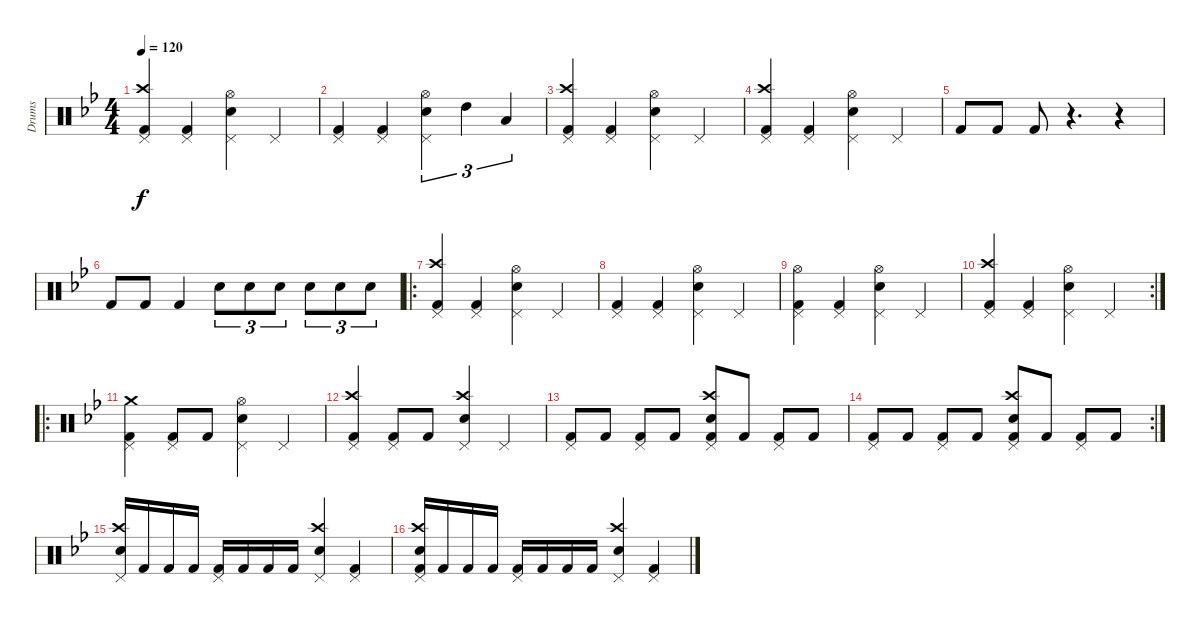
\track ("Drums" "Drums") {instrument percussion}
\staff {score}
\articulation defaults
\ts (4 4)
\tempo 120
\clef neutral
\ks bb
("Pedal Hi-Hat (hit)" "Crash high (hit)" "Kick (hit) 2").4{dy f} ("Pedal Hi-Hat (hit)" "Kick (hit) 2").4 ("Pedal Hi-Hat (hit)" "Snare (hit) 2" "Hi-Hat (open)").4 "Pedal Hi-Hat (hit)".4 |
("Pedal Hi-Hat (hit)" "Kick (hit) 2").4 ("Pedal Hi-Hat (hit)" "Kick (hit) 2").4 ("Pedal Hi-Hat (hit)" "Snare (hit) 2" "Hi-Hat (open)").4{tu (3 2)} "High Tom (hit)".4{tu (3 2)} "Low Tom (hit)".4{tu (3 2)} |
("Pedal Hi-Hat (hit)" "Crash high (hit)" "Kick (hit) 2").4 ("Pedal Hi-Hat (hit)" "Kick (hit) 2").4 ("Pedal Hi-Hat (hit)" "Snare (hit) 2" "Hi-Hat (open)").4 "Pedal Hi-Hat (hit)".4 |
("Pedal Hi-Hat (hit)" "Crash high (hit)" "Kick (hit) 2").4 ("Pedal Hi-Hat (hit)" "Kick (hit) 2").4 ("Pedal Hi-Hat (hit)" "Snare (hit) 2" "Hi-Hat (open)").4 "Pedal Hi-Hat (hit)".4 |
"Kick (hit) 2".8 "Kick (hit) 2".8 "Kick (hit) 2".8 r.4{d} r.4 |
"Kick (hit) 2".8 "Kick (hit) 2".8 "Kick (hit) 2".4 "Snare (hit) 2".8{tu (3 2)} "Snare (hit) 2".8{tu (3 2)} "Snare (hit) 2".8{tu (3 2)} "Snare (hit) 2".8{tu (3 2)} "Snare (hit) 2".8{tu (3 2)} "Snare (hit) 2".8{tu (3 2)} |
\ro
("Pedal Hi-Hat (hit)" "Crash high (hit)" "Kick (hit) 2").4 ("Pedal Hi-Hat (hit)" "Kick (hit) 2").4 ("Pedal Hi-Hat (hit)" "Snare (hit) 2" "Hi-Hat (open)").4 "Pedal Hi-Hat (hit)".4 |
("Pedal Hi-Hat (hit)" "Kick (hit) 2").4 ("Pedal Hi-Hat (hit)" "Kick (hit) 2").4 ("Pedal Hi-Hat (hit)" "Snare (hit) 2" "Hi-Hat (open)").4 "Pedal Hi-Hat (hit)".4 |
("Pedal Hi-Hat (hit)" "Hi-Hat (open)" "Kick (hit) 2").4 ("Pedal Hi-Hat (hit)" "Kick (hit) 2").4 ("Pedal Hi-Hat (hit)" "Snare (hit) 2" "Hi-Hat (open)").4 "Pedal Hi-Hat (hit)".4 |
\rc 2
("Pedal Hi-Hat (hit)" "Crash high (hit)" "Kick (hit) 2").4 ("Pedal Hi-Hat (hit)" "Kick (hit) 2").4 ("Pedal Hi-Hat (hit)" "Snare (hit) 2" "Hi-Hat (open)").4 "Pedal Hi-Hat (hit)".4 |
\ro
("Pedal Hi-Hat (hit)" "Crash medium (hit)" "Kick (hit) 2").4 ("Pedal Hi-Hat (hit)" "Kick (hit) 2").8 "Kick (hit) 2".8 ("Pedal Hi-Hat (hit)" "Snare (hit) 2" "Hi-Hat (open)").4 "Pedal Hi-Hat (hit)".4 |
("Pedal Hi-Hat (hit)" "Crash high (hit)" "Kick (hit) 2").4 ("Pedal Hi-Hat (hit)" "Kick (hit) 2").8 "Kick (hit) 2".8 ("Pedal Hi-Hat (hit)" "Snare (hit) 2" "Crash high (hit)").4 "Pedal Hi-Hat (hit)".4 |
("Pedal Hi-Hat (hit)" "Kick (hit) 2").8 "Kick (hit) 2".8 ("Pedal Hi-Hat (hit)" "Kick (hit) 2").8 "Kick (hit) 2".8 ("Pedal Hi-Hat (hit)" "Snare (hit) 2" "Crash high (hit)" "Kick (hit) 2").8 "Kick (hit) 2".8 ("Pedal Hi-Hat (hit)" "Kick (hit) 2").8 "Kick (hit) 2".8 |
\rc 2
("Pedal Hi-Hat (hit)" "Kick (hit) 2").8 "Kick (hit) 2".8 ("Pedal Hi-Hat (hit)" "Kick (hit) 2").8 "Kick (hit) 2".8 ("Pedal Hi-Hat (hit)" "Snare (hit) 2" "Crash high (hit)" "Kick (hit) 2").8 "Kick (hit) 2".8 ("Pedal Hi-Hat (hit)" "Kick (hit) 2").8 "Kick (hit) 2".8 |
("Pedal Hi-Hat (hit)" "Snare (hit) 2" "Crash high (hit)").16 "Kick (hit) 2".16 "Kick (hit) 2".16 "Kick (hit) 2".16 ("Pedal Hi-Hat (hit)" "Kick (hit) 2").16 "Kick (hit) 2".16 "Kick (hit) 2".16 "Kick (hit) 2".16 ("Pedal Hi-Hat (hit)" "Snare (hit) 2" "Crash high (hit)").4 ("Pedal Hi-Hat (hit)" "Kick (hit) 2").4 |
("Pedal Hi-Hat (hit)" "Snare (hit) 2" "Crash high (hit)" "Kick (hit) 2").16 "Kick (hit) 2".16 "Kick (hit) 2".16 "Kick (hit) 2".16 ("Pedal Hi-Hat (hit)" "Kick (hit) 2").16 "Kick (hit) 2".16 "Kick (hit) 2".16 "Kick (hit) 2".16 ("Pedal Hi-Hat (hit)" "Snare (hit) 2" "Crash high (hit)").4 ("Pedal Hi-Hat (hit)" "Kick (hit) 2").4
